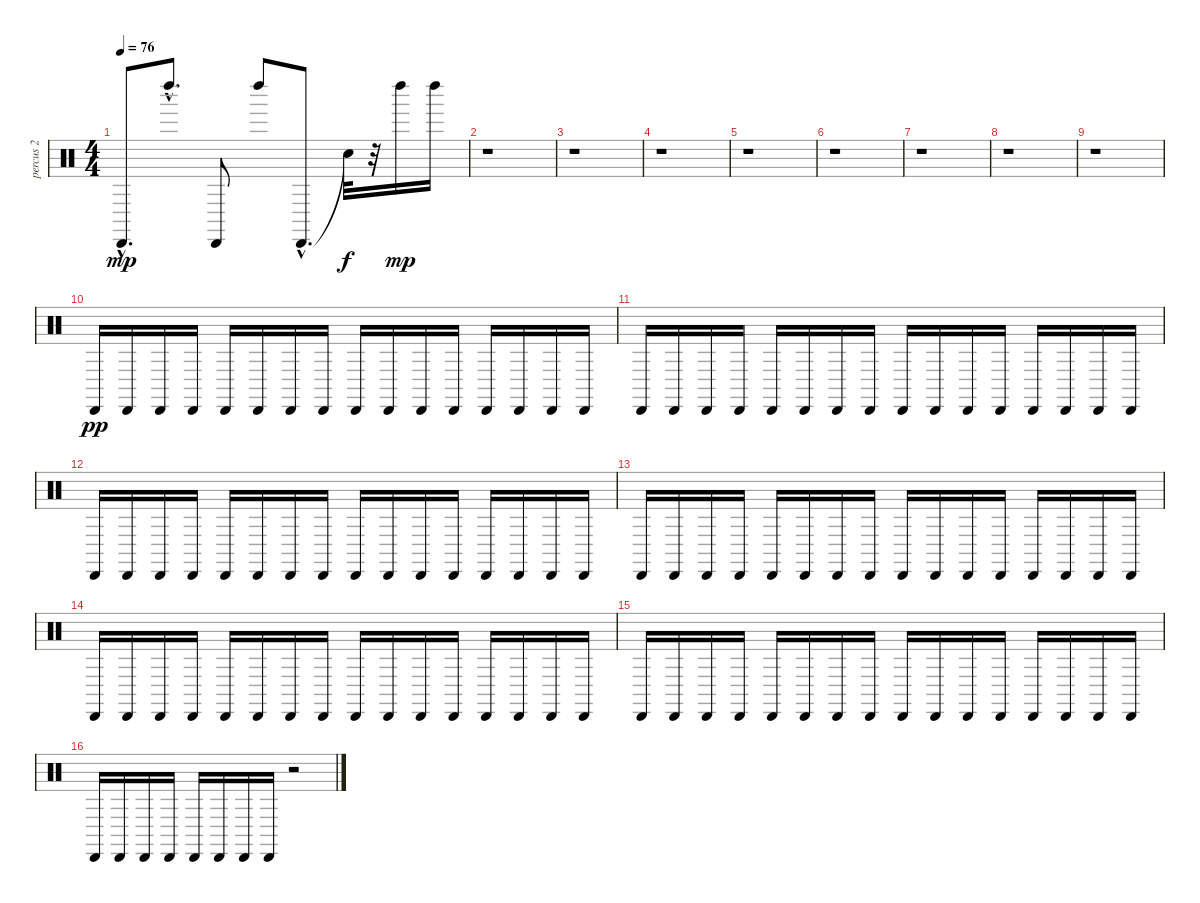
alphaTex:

\track ("percus 2" "percus 2") {instrument percussion}
\staff {score}
\articulation defaults
\ts (4 4)
\tempo 76
\clef neutral
\ks c "Cabasa (hit)"{hac}.8{d dy mp} "Left Maraca (hit)"{hac}.8{d} "Cabasa (hit)".8 "Left Maraca (hit)".8 "Cabasa (hit)"{hac}.8{d} "Snare (hit)"{t}.32{dy f}
r.32 "Left Maraca (hit)".16{dy mp} "Left Maraca (hit)".16 |
r.1 |
r.1 |
r.1 |
r.1 |
r.1 |
r.1 |
r.1 |
r.1 |
"Cabasa (hit)".16{dy pp} "Cabasa (hit)".16 "Cabasa (hit)".16 "Cabasa (hit)".16 "Cabasa (hit)".16 "Cabasa (hit)".16 "Cabasa (hit)".16 "Cabasa (hit)".16 "Cabasa (hit)".16 "Cabasa (hit)".16 "Cabasa (hit)".16 "Cabasa (hit)".16 "Cabasa (hit)".16 "Cabasa (hit)".16 "Cabasa (hit)".16 "Cabasa (hit)".16 |
"Cabasa (hit)".16 "Cabasa (hit)".16 "Cabasa (hit)".16 "Cabasa (hit)".16 "Cabasa (hit)".16 "Cabasa (hit)".16 "Cabasa (hit)".16 "Cabasa (hit)".16 "Cabasa (hit)".16 "Cabasa (hit)".16 "Cabasa (hit)".16 "Cabasa (hit)".16 "Cabasa (hit)".16 "Cabasa (hit)".16 "Cabasa (hit)".16 "Cabasa (hit)".16 |
"Cabasa (hit)".16 "Cabasa (hit)".16 "Cabasa (hit)".16 "Cabasa (hit)".16 "Cabasa (hit)".16 "Cabasa (hit)".16 "Cabasa (hit)".16 "Cabasa (hit)".16 "Cabasa (hit)".16 "Cabasa (hit)".16 "Cabasa (hit)".16 "Cabasa (hit)".16 "Cabasa (hit)".16 "Cabasa (hit)".16 "Cabasa (hit)".16 "Cabasa (hit)".16 |
"Cabasa (hit)".16 "Cabasa (hit)".16 "Cabasa (hit)".16 "Cabasa (hit)".16 "Cabasa (hit)".16 "Cabasa (hit)".16 "Cabasa (hit)".16 "Cabasa (hit)".16 "Cabasa (hit)".16 "Cabasa (hit)".16 "Cabasa (hit)".16 "Cabasa (hit)".16 "Cabasa (hit)".16 "Cabasa (hit)".16 "Cabasa (hit)".16 "Cabasa (hit)".16 |
"Cabasa (hit)".16 "Cabasa (hit)".16 "Cabasa (hit)".16 "Cabasa (hit)".16 "Cabasa (hit)".16 "Cabasa (hit)".16 "Cabasa (hit)".16 "Cabasa (hit)".16 "Cabasa (hit)".16 "Cabasa (hit)".16 "Cabasa (hit)".16 "Cabasa (hit)".16 "Cabasa (hit)".16 "Cabasa (hit)".16 "Cabasa (hit)".16 "Cabasa (hit)".16 |
"Cabasa (hit)".16 "Cabasa (hit)".16 "Cabasa (hit)".16 "Cabasa (hit)".16 "Cabasa (hit)".16 "Cabasa (hit)".16 "Cabasa (hit)".16 "Cabasa (hit)".16 "Cabasa (hit)".16 "Cabasa (hit)".16 "Cabasa (hit)".16 "Cabasa (hit)".16 "Cabasa (hit)".16 "Cabasa (hit)".16 "Cabasa (hit)".16 "Cabasa (hit)".16 |
"Cabasa (hit)".16 "Cabasa (hit)".16 "Cabasa (hit)".16 "Cabasa (hit)".16 "Cabasa (hit)".16 "Cabasa (hit)".16 "Cabasa (hit)".16 "Cabasa (hit)".16 r.2
